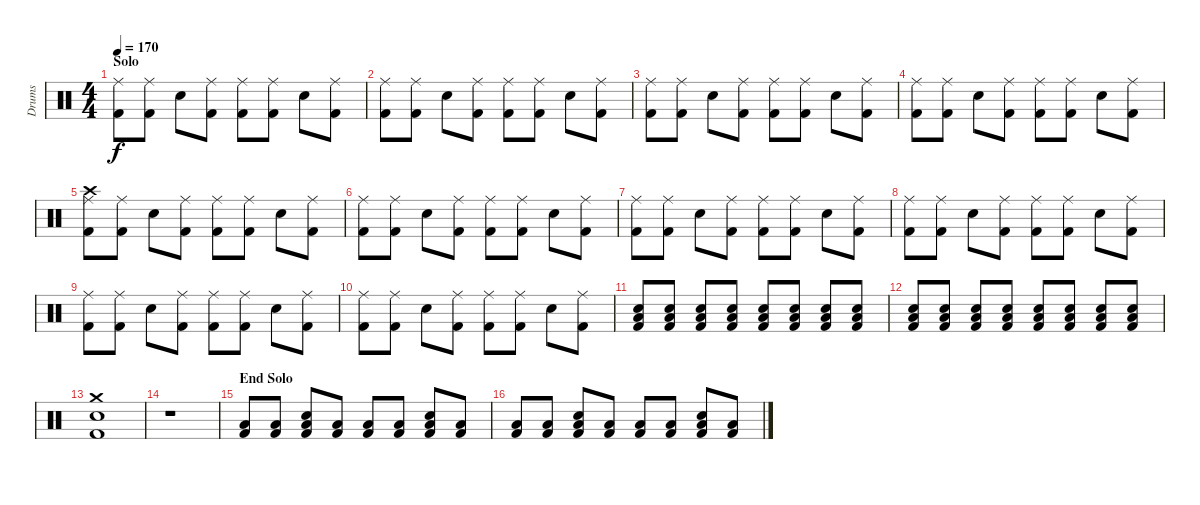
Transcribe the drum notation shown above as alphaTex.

\track ("Drums" "Drums") {instrument percussion}
\staff {score}
\articulation defaults
\ts (4 4)
\section ("" "Solo")
\tempo 170
\clef neutral
\ks c
("Ride (middle)" "Kick (hit) 2").8{dy f} ("Ride (middle)" "Kick (hit) 2").8 "Snare (hit) 2".8 ("Ride (middle)" "Kick (hit) 2").8 ("Ride (middle)" "Kick (hit) 2").8 ("Ride (middle)" "Kick (hit) 2").8 "Snare (hit) 2".8 ("Ride (middle)" "Kick (hit) 2").8 |
("Ride (middle)" "Kick (hit) 2").8 ("Ride (middle)" "Kick (hit) 2").8 "Snare (hit) 2".8 ("Ride (middle)" "Kick (hit) 2").8 ("Ride (middle)" "Kick (hit) 2").8 ("Ride (middle)" "Kick (hit) 2").8 "Snare (hit) 2".8 ("Ride (middle)" "Kick (hit) 2").8 |
("Ride (middle)" "Kick (hit) 2").8 ("Ride (middle)" "Kick (hit) 2").8 "Snare (hit) 2".8 ("Ride (middle)" "Kick (hit) 2").8 ("Ride (middle)" "Kick (hit) 2").8 ("Ride (middle)" "Kick (hit) 2").8 "Snare (hit) 2".8 ("Ride (middle)" "Kick (hit) 2").8 |
("Ride (middle)" "Kick (hit) 2").8 ("Ride (middle)" "Kick (hit) 2").8 "Snare (hit) 2".8 ("Ride (middle)" "Kick (hit) 2").8 ("Ride (middle)" "Kick (hit) 2").8 ("Ride (middle)" "Kick (hit) 2").8 "Snare (hit) 2".8 ("Ride (middle)" "Kick (hit) 2").8 |
("Ride (middle)" "Crash high (hit)" "Kick (hit) 2").8 ("Ride (middle)" "Kick (hit) 2").8 "Snare (hit) 2".8 ("Ride (middle)" "Kick (hit) 2").8 ("Ride (middle)" "Kick (hit) 2").8 ("Ride (middle)" "Kick (hit) 2").8 "Snare (hit) 2".8 ("Ride (middle)" "Kick (hit) 2").8 |
("Ride (middle)" "Kick (hit) 2").8 ("Ride (middle)" "Kick (hit) 2").8 "Snare (hit) 2".8 ("Ride (middle)" "Kick (hit) 2").8 ("Ride (middle)" "Kick (hit) 2").8 ("Ride (middle)" "Kick (hit) 2").8 "Snare (hit) 2".8 ("Ride (middle)" "Kick (hit) 2").8 |
("Ride (middle)" "Kick (hit) 2").8 ("Ride (middle)" "Kick (hit) 2").8 "Snare (hit) 2".8 ("Ride (middle)" "Kick (hit) 2").8 ("Ride (middle)" "Kick (hit) 2").8 ("Ride (middle)" "Kick (hit) 2").8 "Snare (hit) 2".8 ("Ride (middle)" "Kick (hit) 2").8 |
("Ride (middle)" "Kick (hit) 2").8 ("Ride (middle)" "Kick (hit) 2").8 "Snare (hit) 2".8 ("Ride (middle)" "Kick (hit) 2").8 ("Ride (middle)" "Kick (hit) 2").8 ("Ride (middle)" "Kick (hit) 2").8 "Snare (hit) 2".8 ("Ride (middle)" "Kick (hit) 2").8 |
("Ride (middle)" "Kick (hit) 2").8 ("Ride (middle)" "Kick (hit) 2").8 "Snare (hit) 2".8 ("Ride (middle)" "Kick (hit) 2").8 ("Ride (middle)" "Kick (hit) 2").8 ("Ride (middle)" "Kick (hit) 2").8 "Snare (hit) 2".8 ("Ride (middle)" "Kick (hit) 2").8 |
("Ride (middle)" "Kick (hit) 2").8 ("Ride (middle)" "Kick (hit) 2").8 "Snare (hit) 2".8 ("Ride (middle)" "Kick (hit) 2").8 ("Ride (middle)" "Kick (hit) 2").8 ("Ride (middle)" "Kick (hit) 2").8 "Snare (hit) 2".8 ("Ride (middle)" "Kick (hit) 2").8 |
("Low Floor Tom (hit)" "Snare (hit) 2" "Kick (hit) 2").8 ("Low Floor Tom (hit)" "Snare (hit) 2" "Kick (hit) 2").8 ("Low Floor Tom (hit)" "Snare (hit) 2" "Kick (hit) 2").8 ("Low Floor Tom (hit)" "Snare (hit) 2" "Kick (hit) 2").8 ("Low Floor Tom (hit)" "Snare (hit) 2" "Kick (hit) 2").8 ("Low Floor Tom (hit)" "Snare (hit) 2" "Kick (hit) 2").8 ("Low Floor Tom (hit)" "Snare (hit) 2" "Kick (hit) 2").8 ("Low Floor Tom (hit)" "Snare (hit) 2" "Kick (hit) 2").8 |
("Low Floor Tom (hit)" "Snare (hit) 2" "Kick (hit) 2").8 ("Low Floor Tom (hit)" "Snare (hit) 2" "Kick (hit) 2").8 ("Low Floor Tom (hit)" "Snare (hit) 2" "Kick (hit) 2").8 ("Low Floor Tom (hit)" "Snare (hit) 2" "Kick (hit) 2").8 ("Low Floor Tom (hit)" "Snare (hit) 2" "Kick (hit) 2").8 ("Low Floor Tom (hit)" "Snare (hit) 2" "Kick (hit) 2").8 ("Low Floor Tom (hit)" "Snare (hit) 2" "Kick (hit) 2").8 ("Low Floor Tom (hit)" "Snare (hit) 2" "Kick (hit) 2").8 |
("Crash medium (hit)" "Snare (hit) 2" "Kick (hit) 2").1 |
r.1 |
\section ("" "End Solo")
("Low Floor Tom (hit)" "Kick (hit) 2").8 ("Low Floor Tom (hit)" "Kick (hit) 2").8 ("Low Floor Tom (hit)" "Snare (hit) 2" "Kick (hit) 2").8 ("Low Floor Tom (hit)" "Kick (hit) 2").8 ("Low Floor Tom (hit)" "Kick (hit) 2").8 ("Low Floor Tom (hit)" "Kick (hit) 2").8 ("Low Floor Tom (hit)" "Snare (hit) 2" "Kick (hit) 2").8 ("Low Floor Tom (hit)" "Kick (hit) 2").8 |
("Low Floor Tom (hit)" "Kick (hit) 2").8 ("Low Floor Tom (hit)" "Kick (hit) 2").8 ("Low Floor Tom (hit)" "Snare (hit) 2" "Kick (hit) 2").8 ("Low Floor Tom (hit)" "Kick (hit) 2").8 ("Low Floor Tom (hit)" "Kick (hit) 2").8 ("Low Floor Tom (hit)" "Kick (hit) 2").8 ("Low Floor Tom (hit)" "Snare (hit) 2" "Kick (hit) 2").8 ("Low Floor Tom (hit)" "Kick (hit) 2").8
